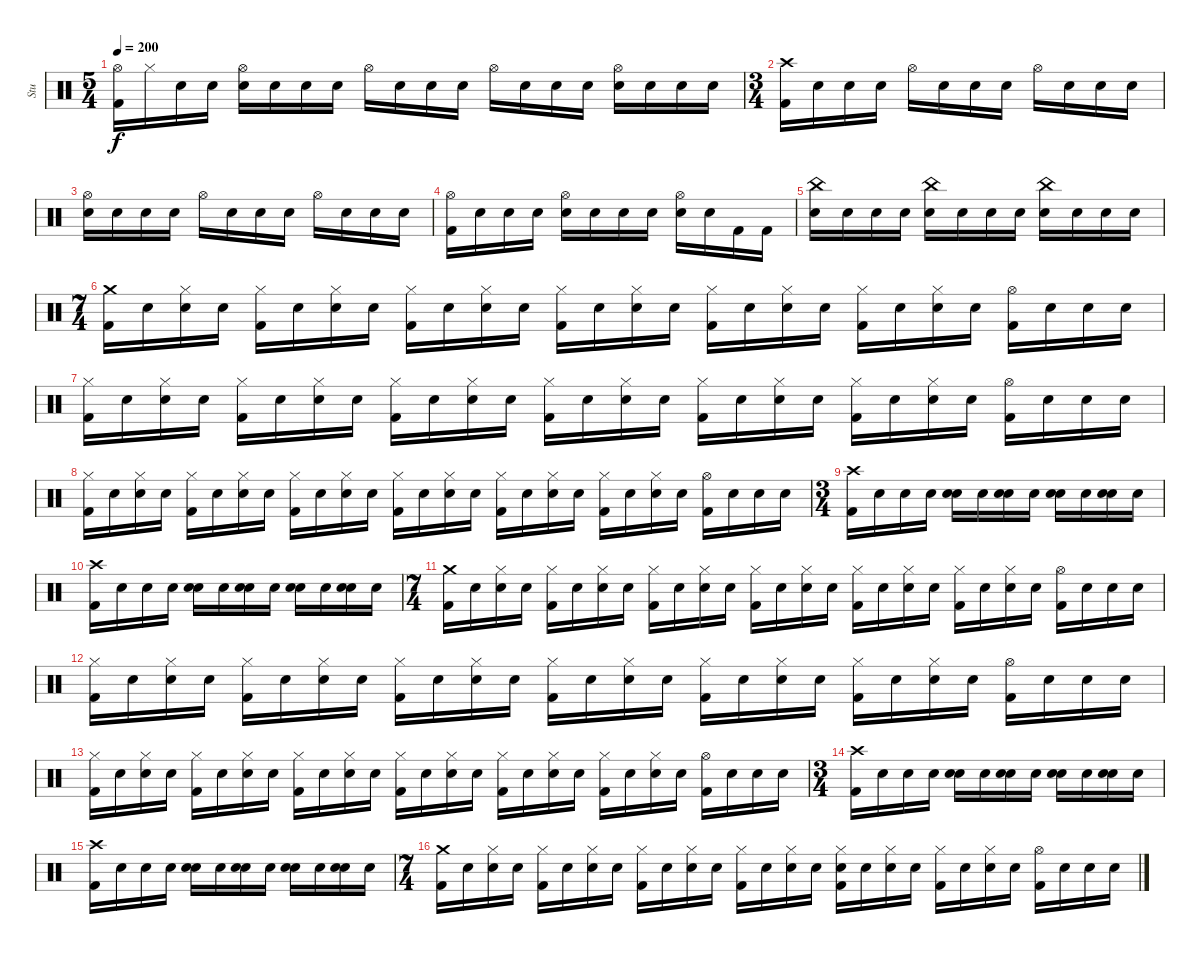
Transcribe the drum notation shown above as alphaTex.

\track ("Stu" "Stu") {instrument percussion}
\staff {score}
\articulation defaults
\ts (5 4)
\tempo 200
\clef neutral
\ks c
("Hi-Hat (open)" "Kick (hit) 2").16{dy f} "Hi-Hat (closed)"{x}.16 "Snare (hit)"{x}.16 "Snare (hit)"{x}.16 ("Electric Snare (hit)"{x} "Hi-Hat (open)").16 "Snare (hit)"{x}.16 "Snare (hit)"{x}.16 "Snare (hit)"{x}.16 "Hi-Hat (open)".16 "Snare (hit)"{x}.16 "Snare (hit)"{x}.16 "Snare (hit)"{x}.16 "Hi-Hat (open)".16 "Snare (hit)"{x}.16 "Snare (hit)"{x}.16 "Snare (hit)"{x}.16 ("Electric Snare (hit)" "Hi-Hat (open)").16 "Snare (hit)"{x}.16 "Snare (hit)"{x}.16 "Snare (hit)"{x}.16 |
\ts (3 4)
("Crash high (hit)" "Kick (hit) 2").16 "Snare (hit)"{x}.16 "Snare (hit)"{x}.16 "Snare (hit)"{x}.16 "Hi-Hat (open)".16 "Snare (hit)"{x}.16 "Snare (hit)"{x}.16 "Snare (hit)"{x}.16 "Hi-Hat (open)".16 "Snare (hit)"{x}.16 "Snare (hit)"{x}.16 "Snare (hit)"{x}.16 |
("Electric Snare (hit)" "Hi-Hat (open)").16 "Snare (hit)"{x}.16 "Snare (hit)"{x}.16 "Snare (hit)"{x}.16 "Hi-Hat (open)".16 "Snare (hit)"{x}.16 "Snare (hit)"{x}.16 "Snare (hit)"{x}.16 "Hi-Hat (open)".16 "Snare (hit)"{x}.16 "Snare (hit)"{x}.16 "Snare (hit)"{x}.16 |
("Hi-Hat (open)" "Kick (hit) 2").16 "Snare (hit)"{x}.16 "Snare (hit)"{x}.16 "Snare (hit)"{x}.16 ("Hi-Hat (open)" "Snare (hit)"{x}).16 "Snare (hit)"{x}.16 "Snare (hit)"{x}.16 "Snare (hit)"{x}.16 ("Hi-Hat (open)" "Snare (hit)"{x}).16 "Snare (hit)"{x}.16 "Kick (hit) 2".16 "Kick (hit) 2".16 |
("China (hit)" "Electric Snare (hit)").16 "Snare (hit)"{x}.16 "Snare (hit)"{x}.16 "Snare (hit)"{x}.16 ("China (hit)" "Electric Snare (hit)").16 "Snare (hit)"{x}.16 "Snare (hit)"{x}.16 "Snare (hit)"{x}.16 ("China (hit)" "Electric Snare (hit)").16 "Snare (hit)"{x}.16 "Snare (hit)"{x}.16 "Snare (hit)"{x}.16 |
\ts (7 4)
("Crash medium (hit)" "Kick (hit) 2").16 "Snare (hit)"{x}.16 ("Hi-Hat (closed)" "Snare (hit)"{x}).16 "Snare (hit)"{x}.16 ("Hi-Hat (closed)" "Kick (hit) 2").16 "Snare (hit)"{x}.16 ("Hi-Hat (closed)" "Snare (hit)"{x}).16 "Snare (hit)"{x}.16 ("Hi-Hat (closed)" "Kick (hit) 2").16 "Snare (hit)"{x}.16 ("Hi-Hat (closed)" "Snare (hit)"{x}).16 "Snare (hit)"{x}.16 ("Hi-Hat (closed)" "Kick (hit) 2").16 "Snare (hit)"{x}.16 ("Hi-Hat (closed)" "Snare (hit)"{x}).16 "Snare (hit)"{x}.16 ("Hi-Hat (closed)" "Kick (hit) 2").16 "Snare (hit)"{x}.16 ("Hi-Hat (closed)" "Snare (hit)"{x}).16 "Snare (hit)"{x}.16 ("Hi-Hat (closed)" "Kick (hit) 2").16 "Snare (hit)"{x}.16 ("Hi-Hat (closed)" "Snare (hit)"{x}).16 "Snare (hit)"{x}.16 ("Hi-Hat (open)" "Kick (hit) 2").16 "Snare (hit)"{x}.16 "Snare (hit)"{x}.16 "Snare (hit)"{x}.16 |
("Hi-Hat (closed)" "Kick (hit) 2").16 "Snare (hit)"{x}.16 ("Hi-Hat (closed)" "Snare (hit)"{x}).16 "Snare (hit)"{x}.16 ("Hi-Hat (closed)" "Kick (hit) 2").16 "Snare (hit)"{x}.16 ("Hi-Hat (closed)" "Snare (hit)"{x}).16 "Snare (hit)"{x}.16 ("Hi-Hat (closed)" "Kick (hit) 2").16 "Snare (hit)"{x}.16 ("Hi-Hat (closed)" "Snare (hit)"{x}).16 "Snare (hit)"{x}.16 ("Hi-Hat (closed)" "Kick (hit) 2").16 "Snare (hit)"{x}.16 ("Hi-Hat (closed)" "Snare (hit)"{x}).16 "Snare (hit)"{x}.16 ("Hi-Hat (closed)" "Kick (hit) 2").16 "Snare (hit)"{x}.16 ("Hi-Hat (closed)" "Snare (hit)"{x}).16 "Snare (hit)"{x}.16 ("Hi-Hat (closed)" "Kick (hit) 2").16 "Snare (hit)"{x}.16 ("Hi-Hat (closed)" "Snare (hit)"{x}).16 "Snare (hit)"{x}.16 ("Hi-Hat (open)" "Kick (hit) 2").16 "Snare (hit)"{x}.16 "Snare (hit)"{x}.16 "Snare (hit)"{x}.16 |
("Hi-Hat (closed)" "Kick (hit) 2").16 "Snare (hit)"{x}.16 ("Hi-Hat (closed)" "Snare (hit)"{x}).16 "Snare (hit)"{x}.16 ("Hi-Hat (closed)" "Kick (hit) 2").16 "Snare (hit)"{x}.16 ("Hi-Hat (closed)" "Snare (hit)"{x}).16 "Snare (hit)"{x}.16 ("Hi-Hat (closed)" "Kick (hit) 2").16 "Snare (hit)"{x}.16 ("Hi-Hat (closed)" "Snare (hit)"{x}).16 "Snare (hit)"{x}.16 ("Hi-Hat (closed)" "Kick (hit) 2").16 "Snare (hit)"{x}.16 ("Hi-Hat (closed)" "Snare (hit)"{x}).16 "Snare (hit)"{x}.16 ("Hi-Hat (closed)" "Kick (hit) 2").16 "Snare (hit)"{x}.16 ("Hi-Hat (closed)" "Snare (hit)"{x}).16 "Snare (hit)"{x}.16 ("Hi-Hat (closed)" "Kick (hit) 2").16 "Snare (hit)"{x}.16 ("Hi-Hat (closed)" "Snare (hit)"{x}).16 "Snare (hit)"{x}.16 ("Hi-Hat (open)" "Kick (hit) 2").16 "Snare (hit)"{x}.16 "Snare (hit)"{x}.16 "Snare (hit)"{x}.16 |
\ts (3 4)
("Crash high (hit)" "Kick (hit) 2").16 "Snare (hit)"{x}.16 "Snare (hit)"{x}.16 "Snare (hit)"{x}.16 ("Electric Snare (hit)" "Snare (hit)"{x}).16 "Snare (hit)"{x}.16 ("Electric Snare (hit)" "Snare (hit)"{x}).16 "Snare (hit)"{x}.16 ("Electric Snare (hit)" "Snare (hit)"{x}).16 "Snare (hit)"{x}.16 ("Electric Snare (hit)" "Snare (hit)"{x}).16 "Snare (hit)"{x}.16 |
("Crash high (hit)" "Kick (hit) 2").16 "Snare (hit)"{x}.16 "Snare (hit)"{x}.16 "Snare (hit)"{x}.16 ("Electric Snare (hit)" "Snare (hit)"{x}).16 "Snare (hit)"{x}.16 ("Electric Snare (hit)" "Snare (hit)"{x}).16 "Snare (hit)"{x}.16 ("Electric Snare (hit)" "Snare (hit)"{x}).16 "Snare (hit)"{x}.16 ("Electric Snare (hit)" "Snare (hit)"{x}).16 "Snare (hit)"{x}.16 |
\ts (7 4)
("Crash medium (hit)" "Kick (hit) 2").16 "Snare (hit)"{x}.16 ("Hi-Hat (closed)" "Snare (hit)"{x}).16 "Snare (hit)"{x}.16 ("Hi-Hat (closed)" "Kick (hit) 2").16 "Snare (hit)"{x}.16 ("Hi-Hat (closed)" "Snare (hit)"{x}).16 "Snare (hit)"{x}.16 ("Hi-Hat (closed)" "Kick (hit) 2").16 "Snare (hit)"{x}.16 ("Hi-Hat (closed)" "Snare (hit)"{x}).16 "Snare (hit)"{x}.16 ("Hi-Hat (closed)" "Kick (hit) 2").16 "Snare (hit)"{x}.16 ("Hi-Hat (closed)" "Snare (hit)"{x}).16 "Snare (hit)"{x}.16 ("Hi-Hat (closed)" "Kick (hit) 2").16 "Snare (hit)"{x}.16 ("Hi-Hat (closed)" "Snare (hit)"{x}).16 "Snare (hit)"{x}.16 ("Hi-Hat (closed)" "Kick (hit) 2").16 "Snare (hit)"{x}.16 ("Hi-Hat (closed)" "Snare (hit)"{x}).16 "Snare (hit)"{x}.16 ("Hi-Hat (open)" "Kick (hit) 2").16 "Snare (hit)"{x}.16 "Snare (hit)"{x}.16 "Snare (hit)"{x}.16 |
("Hi-Hat (closed)" "Kick (hit) 2").16 "Snare (hit)"{x}.16 ("Hi-Hat (closed)" "Snare (hit)"{x}).16 "Snare (hit)"{x}.16 ("Hi-Hat (closed)" "Kick (hit) 2").16 "Snare (hit)"{x}.16 ("Hi-Hat (closed)" "Snare (hit)"{x}).16 "Snare (hit)"{x}.16 ("Hi-Hat (closed)" "Kick (hit) 2").16 "Snare (hit)"{x}.16 ("Hi-Hat (closed)" "Snare (hit)"{x}).16 "Snare (hit)"{x}.16 ("Hi-Hat (closed)" "Kick (hit) 2").16 "Snare (hit)"{x}.16 ("Hi-Hat (closed)" "Snare (hit)"{x}).16 "Snare (hit)"{x}.16 ("Hi-Hat (closed)" "Kick (hit) 2").16 "Snare (hit)"{x}.16 ("Hi-Hat (closed)" "Snare (hit)"{x}).16 "Snare (hit)"{x}.16 ("Hi-Hat (closed)" "Kick (hit) 2").16 "Snare (hit)"{x}.16 ("Hi-Hat (closed)" "Snare (hit)"{x}).16 "Snare (hit)"{x}.16 ("Hi-Hat (open)" "Kick (hit) 2").16 "Snare (hit)"{x}.16 "Snare (hit)"{x}.16 "Snare (hit)"{x}.16 |
("Hi-Hat (closed)" "Kick (hit) 2").16 "Snare (hit)"{x}.16 ("Hi-Hat (closed)" "Snare (hit)"{x}).16 "Snare (hit)"{x}.16 ("Hi-Hat (closed)" "Kick (hit) 2").16 "Snare (hit)"{x}.16 ("Hi-Hat (closed)" "Snare (hit)"{x}).16 "Snare (hit)"{x}.16 ("Hi-Hat (closed)" "Kick (hit) 2").16 "Snare (hit)"{x}.16 ("Hi-Hat (closed)" "Snare (hit)"{x}).16 "Snare (hit)"{x}.16 ("Hi-Hat (closed)" "Kick (hit) 2").16 "Snare (hit)"{x}.16 ("Hi-Hat (closed)" "Snare (hit)"{x}).16 "Snare (hit)"{x}.16 ("Hi-Hat (closed)" "Kick (hit) 2").16 "Snare (hit)"{x}.16 ("Hi-Hat (closed)" "Snare (hit)"{x}).16 "Snare (hit)"{x}.16 ("Hi-Hat (closed)" "Kick (hit) 2").16 "Snare (hit)"{x}.16 ("Hi-Hat (closed)" "Snare (hit)"{x}).16 "Snare (hit)"{x}.16 ("Hi-Hat (open)" "Kick (hit) 2").16 "Snare (hit)"{x}.16 "Snare (hit)"{x}.16 "Snare (hit)"{x}.16 |
\ts (3 4)
("Crash high (hit)" "Kick (hit) 2").16 "Snare (hit)"{x}.16 "Snare (hit)"{x}.16 "Snare (hit)"{x}.16 ("Electric Snare (hit)" "Snare (hit)"{x}).16 "Snare (hit)"{x}.16 ("Electric Snare (hit)" "Snare (hit)"{x}).16 "Snare (hit)"{x}.16 ("Electric Snare (hit)" "Snare (hit)"{x}).16 "Snare (hit)"{x}.16 ("Electric Snare (hit)" "Snare (hit)"{x}).16 "Snare (hit)"{x}.16 |
("Crash high (hit)" "Kick (hit) 2").16 "Snare (hit)"{x}.16 "Snare (hit)"{x}.16 "Snare (hit)"{x}.16 ("Electric Snare (hit)" "Snare (hit)"{x}).16 "Snare (hit)"{x}.16 ("Electric Snare (hit)" "Snare (hit)"{x}).16 "Snare (hit)"{x}.16 ("Electric Snare (hit)" "Snare (hit)"{x}).16 "Snare (hit)"{x}.16 ("Electric Snare (hit)" "Snare (hit)"{x}).16 "Snare (hit)"{x}.16 |
\ts (7 4)
("Crash medium (hit)" "Kick (hit) 2").16 "Snare (hit)"{x}.16 ("Hi-Hat (closed)" "Snare (hit)"{x}).16 "Snare (hit)"{x}.16 ("Hi-Hat (closed)" "Kick (hit) 2").16 "Snare (hit)"{x}.16 ("Hi-Hat (closed)" "Snare (hit)"{x}).16 "Snare (hit)"{x}.16 ("Hi-Hat (closed)" "Kick (hit) 2").16 "Snare (hit)"{x}.16 ("Hi-Hat (closed)" "Snare (hit)"{x}).16 "Snare (hit)"{x}.16 ("Hi-Hat (closed)" "Kick (hit) 2").16 "Snare (hit)"{x}.16 ("Hi-Hat (closed)" "Snare (hit)"{x}).16 "Snare (hit)"{x}.16 ("Hi-Hat (closed)" "Electric Snare (hit)" "Kick (hit) 2").16 "Snare (hit)"{x}.16 ("Hi-Hat (closed)" "Snare (hit)"{x}).16 "Snare (hit)"{x}.16 ("Hi-Hat (closed)" "Kick (hit) 2").16 "Snare (hit)"{x}.16 ("Hi-Hat (closed)" "Snare (hit)"{x}).16 "Snare (hit)"{x}.16 ("Hi-Hat (open)" "Kick (hit) 2").16 "Snare (hit)"{x}.16 "Snare (hit)"{x}.16 "Snare (hit)"{x}.16
